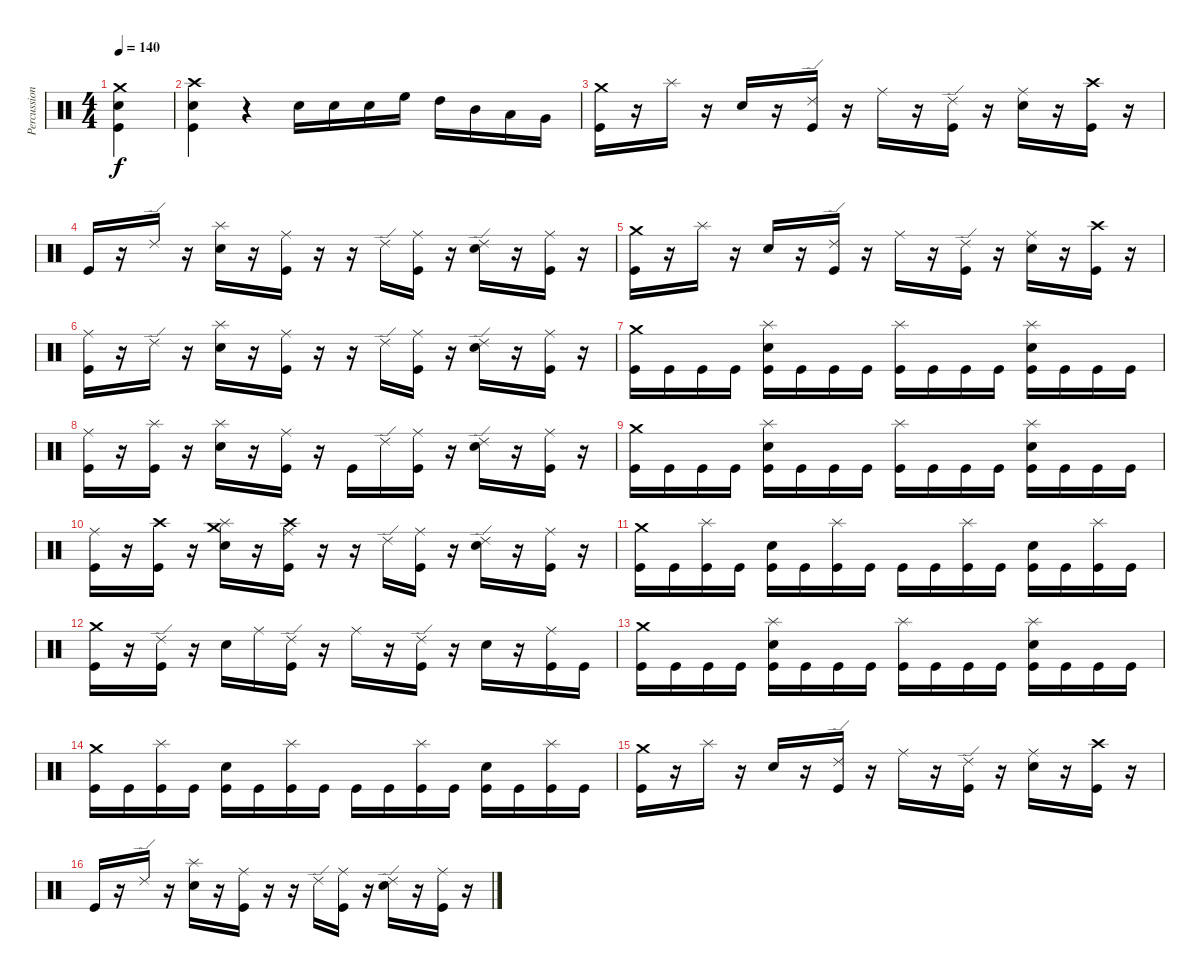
\track ("Percussion" "Percussion") {instrument percussion}
\staff {score}
\articulation defaults
\ts (4 4)
\tempo 140
\clef neutral
\ks c
("Crash medium (hit)" "Electric Snare (hit)" "Kick (hit)").4{dy f} |
("Crash high (hit)" "Electric Snare (hit)" "Kick (hit)").4 r.4 "Electric Snare (hit)".16 "Electric Snare (hit)".16 "Electric Snare (hit)".16 "High Floor Tom (hit)".16 "High Tom (hit)".16 "Mid Tom (hit)".16 "Low Tom (hit)".16 "Very Low Tom (hit)".16 |
("Crash medium (hit)" "Kick (hit)").16 r.16 "Splash (hit)".16 r.16 "Electric Snare (hit)".16 r.16 ("Ride (edge) 2" "Kick (hit)").16 r.16 "Ride (middle)".16 r.16 ("Ride (edge) 2" "Kick (hit)").16 r.16 ("Electric Snare (hit)" "Ride (middle)").16 r.16 ("Crash high (hit)" "Kick (hit)").16 r.16 |
"Kick (hit)".16 r.16 "Ride (edge) 2".16 r.16 ("Electric Snare (hit)" "Splash (hit)").16 r.16 ("Ride (middle)" "Kick (hit)").16 r.16 r.16 "Ride (edge) 2".16 ("Ride (middle)" "Kick (hit)").16 r.16 ("Electric Snare (hit)" "Ride (edge) 2").16 r.16 ("Ride (middle)" "Kick (hit)").16 r.16 |
("Crash medium (hit)" "Kick (hit)").16 r.16 "Splash (hit)".16 r.16 "Electric Snare (hit)".16 r.16 ("Ride (edge) 2" "Kick (hit)").16 r.16 "Ride (middle)".16 r.16 ("Ride (edge) 2" "Kick (hit)").16 r.16 ("Electric Snare (hit)" "Ride (middle)").16 r.16 ("Crash high (hit)" "Kick (hit)").16 r.16 |
("Ride (middle)" "Kick (hit)").16 r.16 "Ride (edge) 2".16 r.16 ("Electric Snare (hit)" "Splash (hit)").16 r.16 ("Ride (middle)" "Kick (hit)").16 r.16 r.16 "Ride (edge) 2".16 ("Ride (middle)" "Kick (hit)").16 r.16 ("Electric Snare (hit)" "Ride (edge) 2").16 r.16 ("Ride (middle)" "Kick (hit)").16 r.16 |
("Crash medium (hit)" "Kick (hit)").16 "Kick (hit)".16 "Kick (hit)".16 "Kick (hit)".16 ("Electric Snare (hit)" "Splash (hit)" "Kick (hit)").16 "Kick (hit)".16 "Kick (hit)".16 "Kick (hit)".16 ("Splash (hit)" "Kick (hit)").16 "Kick (hit)".16 "Kick (hit)".16 "Kick (hit)".16 ("Electric Snare (hit)" "Splash (hit)" "Kick (hit)").16 "Kick (hit)".16 "Kick (hit)".16 "Kick (hit)".16 |
("Ride (middle)" "Kick (hit)").16 r.16 ("Splash (hit)" "Kick (hit)").16 r.16 ("Electric Snare (hit)" "Splash (hit)").16 r.16 ("Ride (middle)" "Kick (hit)").16 r.16 "Kick (hit)".16 "Ride (edge) 2".16 ("Ride (middle)" "Kick (hit)").16 r.16 ("Electric Snare (hit)" "Ride (edge) 2").16 r.16 ("Ride (middle)" "Kick (hit)").16 r.16 |
("Crash medium (hit)" "Kick (hit)").16 "Kick (hit)".16 "Kick (hit)".16 "Kick (hit)".16 ("Electric Snare (hit)" "Splash (hit)" "Kick (hit)").16 "Kick (hit)".16 "Kick (hit)".16 "Kick (hit)".16 ("Splash (hit)" "Kick (hit)").16 "Kick (hit)".16 "Kick (hit)".16 "Kick (hit)".16 ("Electric Snare (hit)" "Splash (hit)" "Kick (hit)").16 "Kick (hit)".16 "Kick (hit)".16 "Kick (hit)".16 |
("Ride (middle)" "Kick (hit)").16 r.16 ("Crash high (hit)" "Kick (hit)").16 r.16 ("Crash medium (hit)" "Electric Snare (hit)" "Splash (hit)").16 r.16 ("Crash high (hit)" "Ride (middle)" "Kick (hit)").16 r.16 r.16 "Ride (edge) 2".16 ("Ride (middle)" "Kick (hit)").16 r.16 ("Electric Snare (hit)" "Ride (edge) 2").16 r.16 ("Ride (middle)" "Kick (hit)").16 r.16 |
("Crash medium (hit)" "Kick (hit)").16 "Kick (hit)".16 ("Splash (hit)" "Kick (hit)").16 "Kick (hit)".16 ("Electric Snare (hit)" "Kick (hit)").16 "Kick (hit)".16 ("Splash (hit)" "Kick (hit)").16 "Kick (hit)".16 "Kick (hit)".16 "Kick (hit)".16 ("Splash (hit)" "Kick (hit)").16 "Kick (hit)".16 ("Electric Snare (hit)" "Kick (hit)").16 "Kick (hit)".16 ("Splash (hit)" "Kick (hit)").16 "Kick (hit)".16 |
("Crash medium (hit)" "Kick (hit)").16 r.16 ("Ride (edge) 2" "Kick (hit)").16 r.16 "Electric Snare (hit)".16 "Ride (middle)".16 ("Ride (edge) 2" "Kick (hit)").16 r.16 "Ride (middle)".16 r.16 ("Ride (edge) 2" "Kick (hit)").16 r.16 "Electric Snare (hit)".16 r.16 ("Ride (middle)" "Kick (hit)").16 "Kick (hit)".16 |
("Crash medium (hit)" "Kick (hit)").16 "Kick (hit)".16 "Kick (hit)".16 "Kick (hit)".16 ("Electric Snare (hit)" "Splash (hit)" "Kick (hit)").16 "Kick (hit)".16 "Kick (hit)".16 "Kick (hit)".16 ("Splash (hit)" "Kick (hit)").16 "Kick (hit)".16 "Kick (hit)".16 "Kick (hit)".16 ("Electric Snare (hit)" "Splash (hit)" "Kick (hit)").16 "Kick (hit)".16 "Kick (hit)".16 "Kick (hit)".16 |
("Crash medium (hit)" "Kick (hit)").16 "Kick (hit)".16 ("Splash (hit)" "Kick (hit)").16 "Kick (hit)".16 ("Electric Snare (hit)" "Kick (hit)").16 "Kick (hit)".16 ("Splash (hit)" "Kick (hit)").16 "Kick (hit)".16 "Kick (hit)".16 "Kick (hit)".16 ("Splash (hit)" "Kick (hit)").16 "Kick (hit)".16 ("Electric Snare (hit)" "Kick (hit)").16 "Kick (hit)".16 ("Splash (hit)" "Kick (hit)").16 "Kick (hit)".16 |
("Crash medium (hit)" "Kick (hit)").16 r.16 "Splash (hit)".16 r.16 "Electric Snare (hit)".16 r.16 ("Ride (edge) 2" "Kick (hit)").16 r.16 "Ride (middle)".16 r.16 ("Ride (edge) 2" "Kick (hit)").16 r.16 ("Electric Snare (hit)" "Ride (middle)").16 r.16 ("Crash high (hit)" "Kick (hit)").16 r.16 |
"Kick (hit)".16 r.16 "Ride (edge) 2".16 r.16 ("Electric Snare (hit)" "Splash (hit)").16 r.16 ("Ride (middle)" "Kick (hit)").16 r.16 r.16 "Ride (edge) 2".16 ("Ride (middle)" "Kick (hit)").16 r.16 ("Electric Snare (hit)" "Ride (edge) 2").16 r.16 ("Ride (middle)" "Kick (hit)").16 r.16
